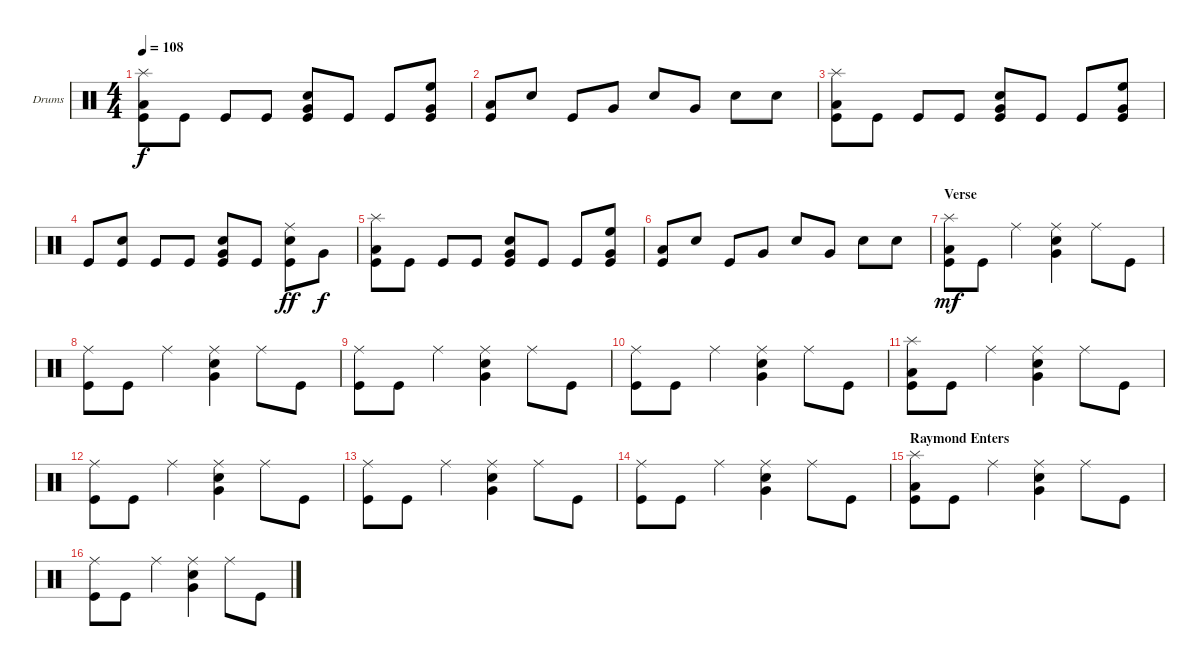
\bracketExtendMode groupsimilarinstruments
\firstSystemTrackNameOrientation horizontal
\otherSystemsTrackNameOrientation horizontal
\track ("Drumkit" "Drums") {instrument percussion}
\staff {score}
\articulation defaults
\ts (4 4)
\tempo 108
\clef neutral
\ks c
("Low Tom (hit)" "Kick (hit)" "Splash (hit)").8{dy f} "Kick (hit)".8 "Kick (hit)".8 "Kick (hit)".8 ("Snare (hit) 2" "Very Low Tom (hit)" "Kick (hit)").8 "Kick (hit)".8 "Kick (hit)".8 ("Kick (hit)" "Very Low Tom (hit)" "High Floor Tom (hit)").8 |
("Kick (hit)" "Low Tom (hit)").8 "Snare (hit) 2".8 "Kick (hit)".8 "Very Low Tom (hit)".8 "Snare (hit) 2".8 "Very Low Tom (hit)".8 "Snare (hit) 2".8 "Snare (hit) 2".8 |
("Low Tom (hit)" "Kick (hit)" "Splash (hit)").8 "Kick (hit)".8 "Kick (hit)".8 "Kick (hit)".8 ("Snare (hit) 2" "Very Low Tom (hit)" "Kick (hit)").8 "Kick (hit)".8 "Kick (hit)".8 ("Kick (hit)" "Very Low Tom (hit)" "High Floor Tom (hit)").8 |
"Kick (hit)".8 ("Kick (hit)" "Snare (hit) 2").8 "Kick (hit)".8 "Kick (hit)".8 ("Snare (hit) 2" "Very Low Tom (hit)" "Kick (hit)").8 "Kick (hit)".8 ("Snare (hit) 2" "Kick (hit)" "Ride (middle)").8{dy ff} "Very Low Tom (hit)".8{dy f} |
("Low Tom (hit)" "Kick (hit)" "Splash (hit)").8 "Kick (hit)".8 "Kick (hit)".8 "Kick (hit)".8 ("Snare (hit) 2" "Very Low Tom (hit)" "Kick (hit)").8 "Kick (hit)".8 "Kick (hit)".8 ("Kick (hit)" "Very Low Tom (hit)" "High Floor Tom (hit)").8 |
("Kick (hit)" "Low Tom (hit)").8 "Snare (hit) 2".8 "Kick (hit)".8 "Very Low Tom (hit)".8 "Snare (hit) 2".8 "Very Low Tom (hit)".8 "Snare (hit) 2".8 "Snare (hit) 2".8 |
\section ("" "Verse")
("Kick (hit)" "Low Tom (hit)" "Splash (hit)").8{dy mf} "Kick (hit)".8 "Ride (middle)".4 ("Snare (hit) 2" "Ride (middle)" "Very Low Tom (hit)").4 "Ride (middle)".8 "Kick (hit)".8 |
("Ride (middle)" "Kick (hit)").8 "Kick (hit)".8 "Ride (middle)".4 ("Snare (hit) 2" "Ride (middle)" "Very Low Tom (hit)").4 "Ride (middle)".8 "Kick (hit)".8 |
("Ride (middle)" "Kick (hit)").8 "Kick (hit)".8 "Ride (middle)".4 ("Snare (hit) 2" "Ride (middle)" "Very Low Tom (hit)").4 "Ride (middle)".8 "Kick (hit)".8 |
("Ride (middle)" "Kick (hit)").8 "Kick (hit)".8 "Ride (middle)".4 ("Snare (hit) 2" "Ride (middle)" "Very Low Tom (hit)").4 "Ride (middle)".8 "Kick (hit)".8 |
("Kick (hit)" "Low Tom (hit)" "Splash (hit)").8 "Kick (hit)".8 "Ride (middle)".4 ("Snare (hit) 2" "Ride (middle)" "Very Low Tom (hit)").4 "Ride (middle)".8 "Kick (hit)".8 |
("Ride (middle)" "Kick (hit)").8 "Kick (hit)".8 "Ride (middle)".4 ("Snare (hit) 2" "Ride (middle)" "Very Low Tom (hit)").4 "Ride (middle)".8 "Kick (hit)".8 |
("Ride (middle)" "Kick (hit)").8 "Kick (hit)".8 "Ride (middle)".4 ("Snare (hit) 2" "Ride (middle)" "Very Low Tom (hit)").4 "Ride (middle)".8 "Kick (hit)".8 |
("Ride (middle)" "Kick (hit)").8 "Kick (hit)".8 "Ride (middle)".4 ("Snare (hit) 2" "Ride (middle)" "Very Low Tom (hit)").4 "Ride (middle)".8 "Kick (hit)".8 |
\section ("" "Raymond Enters")
("Kick (hit)" "Low Tom (hit)" "Splash (hit)").8 "Kick (hit)".8 "Ride (middle)".4 ("Snare (hit) 2" "Ride (middle)" "Very Low Tom (hit)").4 "Ride (middle)".8 "Kick (hit)".8 |
("Ride (middle)" "Kick (hit)").8 "Kick (hit)".8 "Ride (middle)".4 ("Snare (hit) 2" "Ride (middle)" "Very Low Tom (hit)").4 "Ride (middle)".8 "Kick (hit)".8
